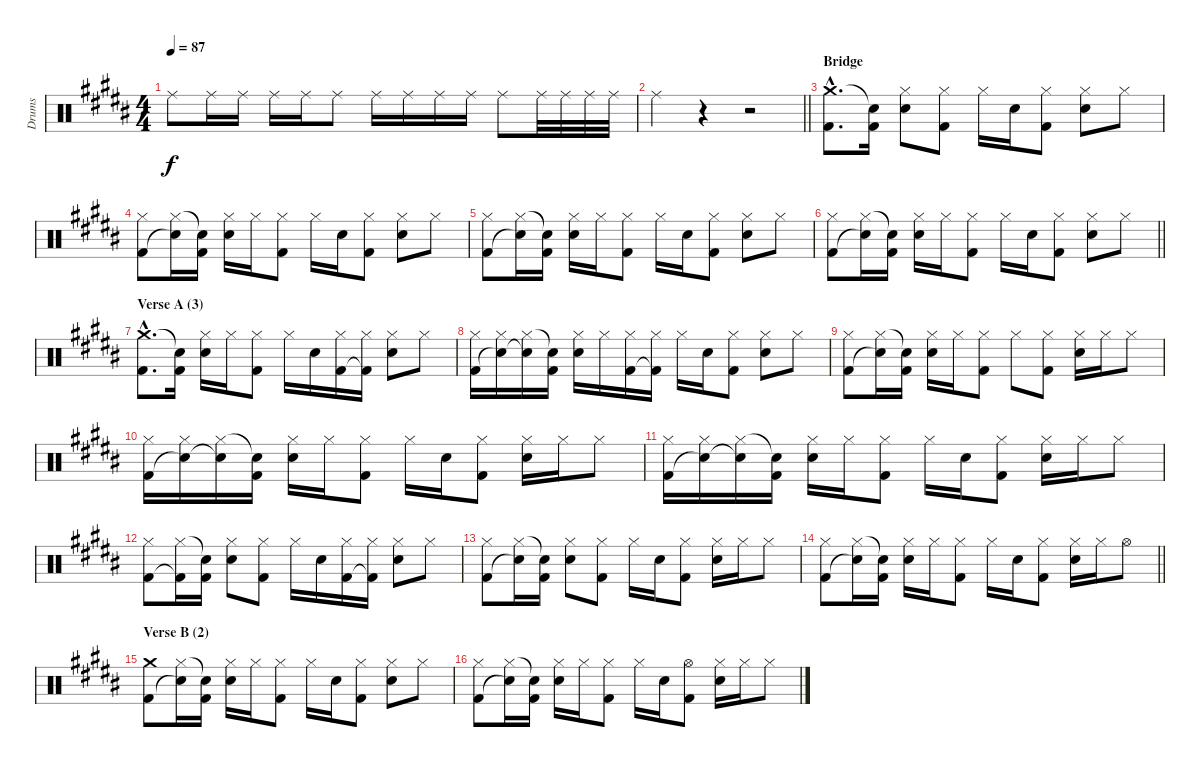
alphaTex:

\track ("Drums" "Drums") {instrument percussion}
\staff {score}
\articulation defaults
\ts (4 4)
\tempo 87
\clef neutral
\ks b "Ride (middle)".8{dy f} "Ride (middle)".16 "Ride (middle)".16 "Ride (middle)".16 "Ride (middle)".16 "Ride (middle)".8 "Ride (middle)".16 "Ride (middle)".16 "Ride (middle)".16 "Ride (middle)".16 "Ride (middle)".8 "Ride (middle)".32 "Ride (middle)".32 "Ride (middle)".32 "Ride (middle)".32
|
\barLineRight lightlight "Ride (middle)".4
r.4 r.2 |
\section ("" "Bridge")
("Crash medium (hit)"{hac} "Kick (hit) 2"{hac}).8{d} ("Snare (hit)"{t} "Kick (hit) 2").16 ("Hi-Hat (closed)" "Electric Snare (hit)").8 ("Hi-Hat (closed)" "Kick (hit) 2").8 "Hi-Hat (closed)".16 "Electric Snare (hit)".16 ("Hi-Hat (closed)" "Kick (hit) 2").8 ("Hi-Hat (closed)" "Electric Snare (hit)").8 "Hi-Hat (closed)".8 |
("Hi-Hat (closed)" "Kick (hit) 2").8 ("Hi-Hat (closed)" "Snare (hit)"{t}).16 ("Snare (hit)"{t} "Kick (hit) 2").16 ("Hi-Hat (closed)" "Electric Snare (hit)").16 "Hi-Hat (closed)".16 ("Hi-Hat (closed)" "Kick (hit) 2").8 "Hi-Hat (closed)".16 "Electric Snare (hit)".16 ("Hi-Hat (closed)" "Kick (hit) 2").8 ("Hi-Hat (closed)" "Electric Snare (hit)").8 "Hi-Hat (closed)".8 |
("Hi-Hat (closed)" "Kick (hit) 2").8 ("Hi-Hat (closed)" "Snare (hit)"{t}).16 ("Snare (hit)"{t} "Kick (hit) 2").16 ("Hi-Hat (closed)" "Electric Snare (hit)").16 "Hi-Hat (closed)".16 ("Hi-Hat (closed)" "Kick (hit) 2").8 "Hi-Hat (closed)".16 "Electric Snare (hit)".16 ("Hi-Hat (closed)" "Kick (hit) 2").8 ("Hi-Hat (closed)" "Electric Snare (hit)").8 "Hi-Hat (closed)".8 |
\barLineRight lightlight
("Hi-Hat (closed)" "Kick (hit) 2").8 ("Hi-Hat (closed)" "Snare (hit)"{t}).16 ("Snare (hit)"{t} "Kick (hit) 2").16 ("Hi-Hat (closed)" "Electric Snare (hit)").16 "Hi-Hat (closed)".16 ("Hi-Hat (closed)" "Kick (hit) 2").8 "Hi-Hat (closed)".16 "Electric Snare (hit)".16 ("Hi-Hat (closed)" "Kick (hit) 2").8 ("Hi-Hat (closed)" "Electric Snare (hit)").8 "Hi-Hat (closed)".8 |
\section ("" "Verse A (3)")
("Crash medium (hit)"{hac} "Kick (hit) 2"{hac}).8{d} ("Snare (hit)"{t} "Kick (hit) 2").16 ("Hi-Hat (closed)" "Electric Snare (hit)").16 "Hi-Hat (closed)".16 ("Hi-Hat (closed)" "Kick (hit) 2").8 "Hi-Hat (closed)".16 "Electric Snare (hit)".16 ("Hi-Hat (closed)" "Kick (hit) 2").16 ("Hi-Hat (closed)" "Kick (hit) 2"{t}).16 ("Hi-Hat (closed)" "Electric Snare (hit)").8 "Hi-Hat (closed)".8 |
("Hi-Hat (closed)" "Kick (hit) 2").16 ("Hi-Hat (closed)" "Snare (hit)"{t}).16 ("Hi-Hat (closed)" "Snare (hit)"{t}).16 ("Snare (hit)"{t} "Kick (hit) 2").16 ("Hi-Hat (closed)" "Electric Snare (hit)").16 "Hi-Hat (closed)".16 ("Hi-Hat (closed)" "Kick (hit) 2").16 ("Hi-Hat (closed)" "Kick (hit) 2"{t}).16 "Hi-Hat (closed)".16 "Electric Snare (hit)".16 ("Hi-Hat (closed)" "Kick (hit) 2").8 ("Hi-Hat (closed)" "Electric Snare (hit)").8 "Hi-Hat (closed)".8 |
("Hi-Hat (closed)" "Kick (hit) 2").8 ("Hi-Hat (closed)" "Snare (hit)"{t}).16 ("Snare (hit)"{t} "Kick (hit) 2").16 ("Hi-Hat (closed)" "Electric Snare (hit)").16 "Hi-Hat (closed)".16 ("Hi-Hat (closed)" "Kick (hit) 2").8 "Hi-Hat (closed)".8 ("Hi-Hat (closed)" "Kick (hit) 2").8 ("Hi-Hat (closed)" "Electric Snare (hit)").16 "Hi-Hat (closed)".16 "Hi-Hat (closed)".8 |
("Hi-Hat (closed)" "Kick (hit) 2").16 ("Hi-Hat (closed)" "Snare (hit)"{t}).16 ("Hi-Hat (closed)" "Snare (hit)"{t}).16 ("Snare (hit)"{t} "Kick (hit) 2").16 ("Hi-Hat (closed)" "Electric Snare (hit)").16 "Hi-Hat (closed)".16 ("Hi-Hat (closed)" "Kick (hit) 2").8 "Hi-Hat (closed)".16 "Electric Snare (hit)".16 ("Hi-Hat (closed)" "Kick (hit) 2").8 ("Hi-Hat (closed)" "Electric Snare (hit)").16 "Hi-Hat (closed)".16 "Hi-Hat (closed)".8 |
("Hi-Hat (closed)" "Kick (hit) 2").16 ("Hi-Hat (closed)" "Snare (hit)"{t}).16 ("Hi-Hat (closed)" "Snare (hit)"{t}).16 ("Snare (hit)"{t} "Kick (hit) 2").16 ("Hi-Hat (closed)" "Electric Snare (hit)").16 "Hi-Hat (closed)".16 ("Hi-Hat (closed)" "Kick (hit) 2").8 "Hi-Hat (closed)".16 "Electric Snare (hit)".16 ("Hi-Hat (closed)" "Kick (hit) 2").8 ("Hi-Hat (closed)" "Electric Snare (hit)").16 "Hi-Hat (closed)".16 "Hi-Hat (closed)".8 |
("Hi-Hat (closed)" "Kick (hit) 2").8 ("Hi-Hat (closed)" "Kick (hit) 2"{t}).16 ("Snare (hit)"{t} "Kick (hit) 2").16 ("Hi-Hat (closed)" "Electric Snare (hit)").8 ("Hi-Hat (closed)" "Kick (hit) 2").8 "Hi-Hat (closed)".16 "Electric Snare (hit)".16 ("Hi-Hat (closed)" "Kick (hit) 2").16 ("Hi-Hat (closed)" "Kick (hit) 2"{t}).16 ("Hi-Hat (closed)" "Electric Snare (hit)").8 "Hi-Hat (closed)".8 |
("Hi-Hat (closed)" "Kick (hit) 2").8 ("Hi-Hat (closed)" "Snare (hit)"{t}).16 ("Snare (hit)"{t} "Kick (hit) 2").16 ("Hi-Hat (closed)" "Electric Snare (hit)").8 ("Hi-Hat (closed)" "Kick (hit) 2").8 "Hi-Hat (closed)".16 "Electric Snare (hit)".16 ("Hi-Hat (closed)" "Kick (hit) 2").8 ("Hi-Hat (closed)" "Electric Snare (hit)").16 "Hi-Hat (closed)".16 "Hi-Hat (closed)".8 |
\barLineRight lightlight
("Hi-Hat (closed)" "Kick (hit) 2").8 ("Hi-Hat (closed)" "Snare (hit)"{t}).16 ("Snare (hit)"{t} "Kick (hit) 2").16 ("Hi-Hat (closed)" "Electric Snare (hit)").16 "Hi-Hat (closed)".16 ("Hi-Hat (closed)" "Kick (hit) 2").8 "Hi-Hat (closed)".16 "Electric Snare (hit)".16 ("Hi-Hat (closed)" "Kick (hit) 2").8 ("Hi-Hat (closed)" "Electric Snare (hit)").16 "Hi-Hat (closed)".16 "Hi-Hat (open)".8 |
\section ("" "Verse B (2)")
("Crash medium (hit)" "Kick (hit) 2").8 ("Hi-Hat (closed)" "Snare (hit)"{t}).16 ("Snare (hit)"{t} "Kick (hit) 2").16 ("Hi-Hat (closed)" "Electric Snare (hit)").16 "Hi-Hat (closed)".16 ("Hi-Hat (closed)" "Kick (hit) 2").8 "Hi-Hat (closed)".16 "Electric Snare (hit)".16 ("Hi-Hat (closed)" "Kick (hit) 2").8 ("Hi-Hat (closed)" "Electric Snare (hit)").8 "Hi-Hat (closed)".8 |
("Hi-Hat (closed)" "Kick (hit) 2").8 ("Hi-Hat (closed)" "Snare (hit)"{t}).16 ("Snare (hit)"{t} "Kick (hit) 2").16 ("Hi-Hat (closed)" "Electric Snare (hit)").16 "Hi-Hat (closed)".16 ("Hi-Hat (closed)" "Kick (hit) 2").8 "Hi-Hat (closed)".16 "Electric Snare (hit)".16 ("Hi-Hat (open)" "Kick (hit) 2").8 ("Hi-Hat (closed)" "Electric Snare (hit)").16 "Hi-Hat (closed)".16 "Hi-Hat (closed)".8
